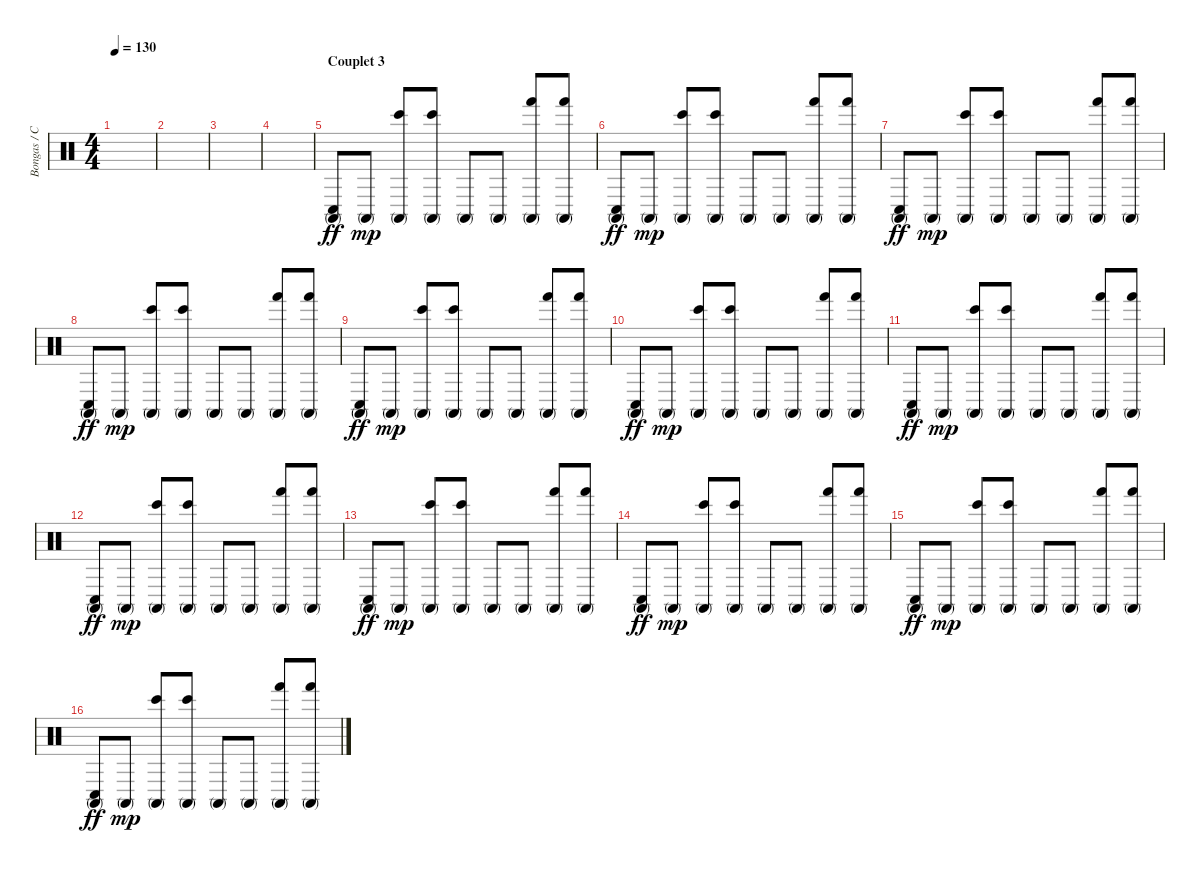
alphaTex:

\track ("Bongas / Congos" "Bongas / C") {instrument percussion}
\staff {score}
\articulation defaults
\ts (4 4)
\tempo 130
\clef neutral
\ks c
|
|
|
|
\section ("" "Couplet 3")
("Conga high (mute)" "Conga low (hit)").8{dy ff} "Conga high (mute)".8{dy mp} ("Conga high (mute)" "Bongo High (hit)").8 ("Conga high (mute)" "Bongo High (hit)").8 "Conga high (mute)".8 "Conga high (mute)".8 ("Conga high (mute)" "Hand (hit)").8 ("Conga high (mute)" "Hand (hit)").8 |
("Conga high (mute)" "Conga low (hit)").8{dy ff} "Conga high (mute)".8{dy mp} ("Conga high (mute)" "Bongo High (hit)").8 ("Conga high (mute)" "Bongo High (hit)").8 "Conga high (mute)".8 "Conga high (mute)".8 ("Conga high (mute)" "Hand (hit)").8 ("Conga high (mute)" "Hand (hit)").8 |
("Conga high (mute)" "Conga low (hit)").8{dy ff} "Conga high (mute)".8{dy mp} ("Conga high (mute)" "Bongo High (hit)").8 ("Conga high (mute)" "Bongo High (hit)").8 "Conga high (mute)".8 "Conga high (mute)".8 ("Conga high (mute)" "Hand (hit)").8 ("Conga high (mute)" "Hand (hit)").8 |
("Conga high (mute)" "Conga low (hit)").8{dy ff} "Conga high (mute)".8{dy mp} ("Conga high (mute)" "Bongo High (hit)").8 ("Conga high (mute)" "Bongo High (hit)").8 "Conga high (mute)".8 "Conga high (mute)".8 ("Conga high (mute)" "Hand (hit)").8 ("Conga high (mute)" "Hand (hit)").8 |
("Conga high (mute)" "Conga low (hit)").8{dy ff} "Conga high (mute)".8{dy mp} ("Conga high (mute)" "Bongo High (hit)").8 ("Conga high (mute)" "Bongo High (hit)").8 "Conga high (mute)".8 "Conga high (mute)".8 ("Conga high (mute)" "Hand (hit)").8 ("Conga high (mute)" "Hand (hit)").8 |
("Conga high (mute)" "Conga low (hit)").8{dy ff} "Conga high (mute)".8{dy mp} ("Conga high (mute)" "Bongo High (hit)").8 ("Conga high (mute)" "Bongo High (hit)").8 "Conga high (mute)".8 "Conga high (mute)".8 ("Conga high (mute)" "Hand (hit)").8 ("Conga high (mute)" "Hand (hit)").8 |
("Conga high (mute)" "Conga low (hit)").8{dy ff} "Conga high (mute)".8{dy mp} ("Conga high (mute)" "Bongo High (hit)").8 ("Conga high (mute)" "Bongo High (hit)").8 "Conga high (mute)".8 "Conga high (mute)".8 ("Conga high (mute)" "Hand (hit)").8 ("Conga high (mute)" "Hand (hit)").8 |
("Conga high (mute)" "Conga low (hit)").8{dy ff} "Conga high (mute)".8{dy mp} ("Conga high (mute)" "Bongo High (hit)").8 ("Conga high (mute)" "Bongo High (hit)").8 "Conga high (mute)".8 "Conga high (mute)".8 ("Conga high (mute)" "Hand (hit)").8 ("Conga high (mute)" "Hand (hit)").8 |
("Conga high (mute)" "Conga low (hit)").8{dy ff} "Conga high (mute)".8{dy mp} ("Conga high (mute)" "Bongo High (hit)").8 ("Conga high (mute)" "Bongo High (hit)").8 "Conga high (mute)".8 "Conga high (mute)".8 ("Conga high (mute)" "Hand (hit)").8 ("Conga high (mute)" "Hand (hit)").8 |
("Conga high (mute)" "Conga low (hit)").8{dy ff} "Conga high (mute)".8{dy mp} ("Conga high (mute)" "Bongo High (hit)").8 ("Conga high (mute)" "Bongo High (hit)").8 "Conga high (mute)".8 "Conga high (mute)".8 ("Conga high (mute)" "Hand (hit)").8 ("Conga high (mute)" "Hand (hit)").8 |
("Conga high (mute)" "Conga low (hit)").8{dy ff} "Conga high (mute)".8{dy mp} ("Conga high (mute)" "Bongo High (hit)").8 ("Conga high (mute)" "Bongo High (hit)").8 "Conga high (mute)".8 "Conga high (mute)".8 ("Conga high (mute)" "Hand (hit)").8 ("Conga high (mute)" "Hand (hit)").8 |
("Conga high (mute)" "Conga low (hit)").8{dy ff} "Conga high (mute)".8{dy mp} ("Conga high (mute)" "Bongo High (hit)").8 ("Conga high (mute)" "Bongo High (hit)").8 "Conga high (mute)".8 "Conga high (mute)".8 ("Conga high (mute)" "Hand (hit)").8 ("Conga high (mute)" "Hand (hit)").8
